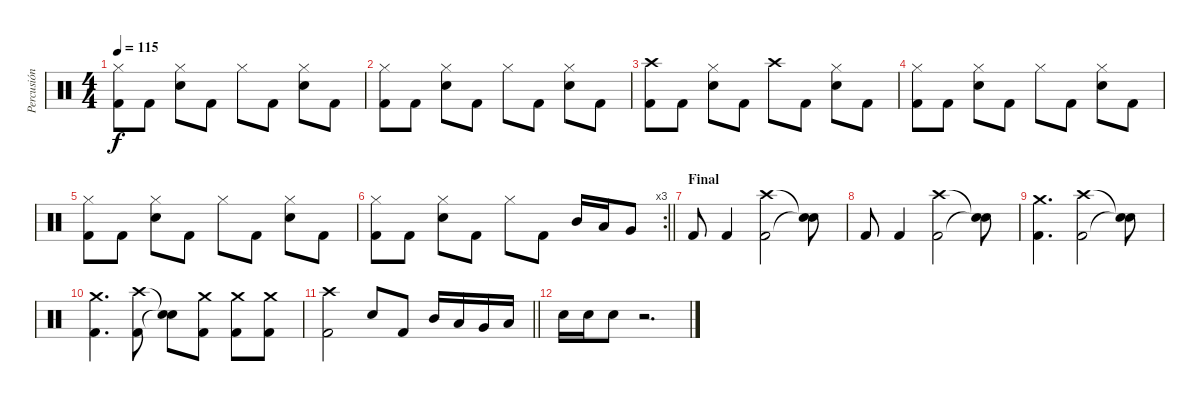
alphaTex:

\track ("Percusión" "Percusión") {instrument percussion}
\staff {score}
\articulation defaults
\ts (4 4)
\tempo 115
\clef neutral
\ks c
("Hi-Hat (closed)" "Kick (hit) 2").8{dy f} "Kick (hit) 2".8 ("Hi-Hat (closed)" "Snare (hit) 2").8 "Kick (hit) 2".8 "Hi-Hat (closed)".8 "Kick (hit) 2".8 ("Hi-Hat (closed)" "Snare (hit) 2").8 "Kick (hit) 2".8 |
("Hi-Hat (closed)" "Kick (hit) 2").8 "Kick (hit) 2".8 ("Hi-Hat (closed)" "Snare (hit) 2").8 "Kick (hit) 2".8 "Hi-Hat (closed)".8 "Kick (hit) 2".8 ("Hi-Hat (closed)" "Snare (hit) 2").8 "Kick (hit) 2".8 |
("Crash high (hit)" "Kick (hit) 2").8 "Kick (hit) 2".8 ("Hi-Hat (closed)" "Snare (hit) 2").8 "Kick (hit) 2".8 "Crash high (hit)".8 "Kick (hit) 2".8 ("Hi-Hat (closed)" "Snare (hit) 2").8 "Kick (hit) 2".8 |
("Hi-Hat (closed)" "Kick (hit) 2").8 "Kick (hit) 2".8 ("Hi-Hat (closed)" "Snare (hit) 2").8 "Kick (hit) 2".8 "Hi-Hat (closed)".8 "Kick (hit) 2".8 ("Hi-Hat (closed)" "Snare (hit) 2").8 "Kick (hit) 2".8 |
("Hi-Hat (closed)" "Kick (hit) 2").8 "Kick (hit) 2".8 ("Hi-Hat (closed)" "Snare (hit) 2").8 "Kick (hit) 2".8 "Hi-Hat (closed)".8 "Kick (hit) 2".8 ("Hi-Hat (closed)" "Snare (hit) 2").8 "Kick (hit) 2".8 |
\rc 3
\barLineRight lightlight
("Hi-Hat (closed)" "Kick (hit) 2").8 "Kick (hit) 2".8 ("Hi-Hat (closed)" "Snare (hit) 2").8 "Kick (hit) 2".8 "Hi-Hat (closed)".8 "Kick (hit) 2".8 "Mid Tom (hit)".16 "Low Tom (hit)".16 "Very Low Tom (hit)".8 |
\section ("" "Final")
"Kick (hit) 2".8 "Kick (hit) 2".4 ("Crash high (hit)" "Kick (hit) 2").2 ("Snare (hit)"{t} "Snare (hit)"{t}).8 |
"Kick (hit) 2".8 "Kick (hit) 2".4 ("Crash high (hit)" "Kick (hit) 2").2 ("Snare (hit)"{t} "Snare (hit)"{t}).8 |
("Crash medium (hit)" "Kick (hit) 2").4{d} ("Crash high (hit)" "Kick (hit) 2").2 ("Snare (hit)"{t} "Snare (hit)"{t}).8 |
("Crash medium (hit)" "Kick (hit) 2").4{d} ("Crash high (hit)" "Kick (hit) 2").8 ("Snare (hit)"{t} "Snare (hit)"{t}).8 ("Crash medium (hit)" "Kick (hit) 2").8 ("Crash medium (hit)" "Kick (hit) 2").8 ("Crash medium (hit)" "Kick (hit) 2").8 |
\barLineRight lightlight
("Crash high (hit)" "Kick (hit) 2").2 "Snare (hit) 2".8 "Kick (hit) 2".8 "Mid Tom (hit)".16 "Low Tom (hit)".16 "Very Low Tom (hit)".16 "Low Floor Tom (hit)".16 |
"Snare (hit) 2".16 "Snare (hit) 2".16 "Snare (hit) 2".8 r.2{d}
